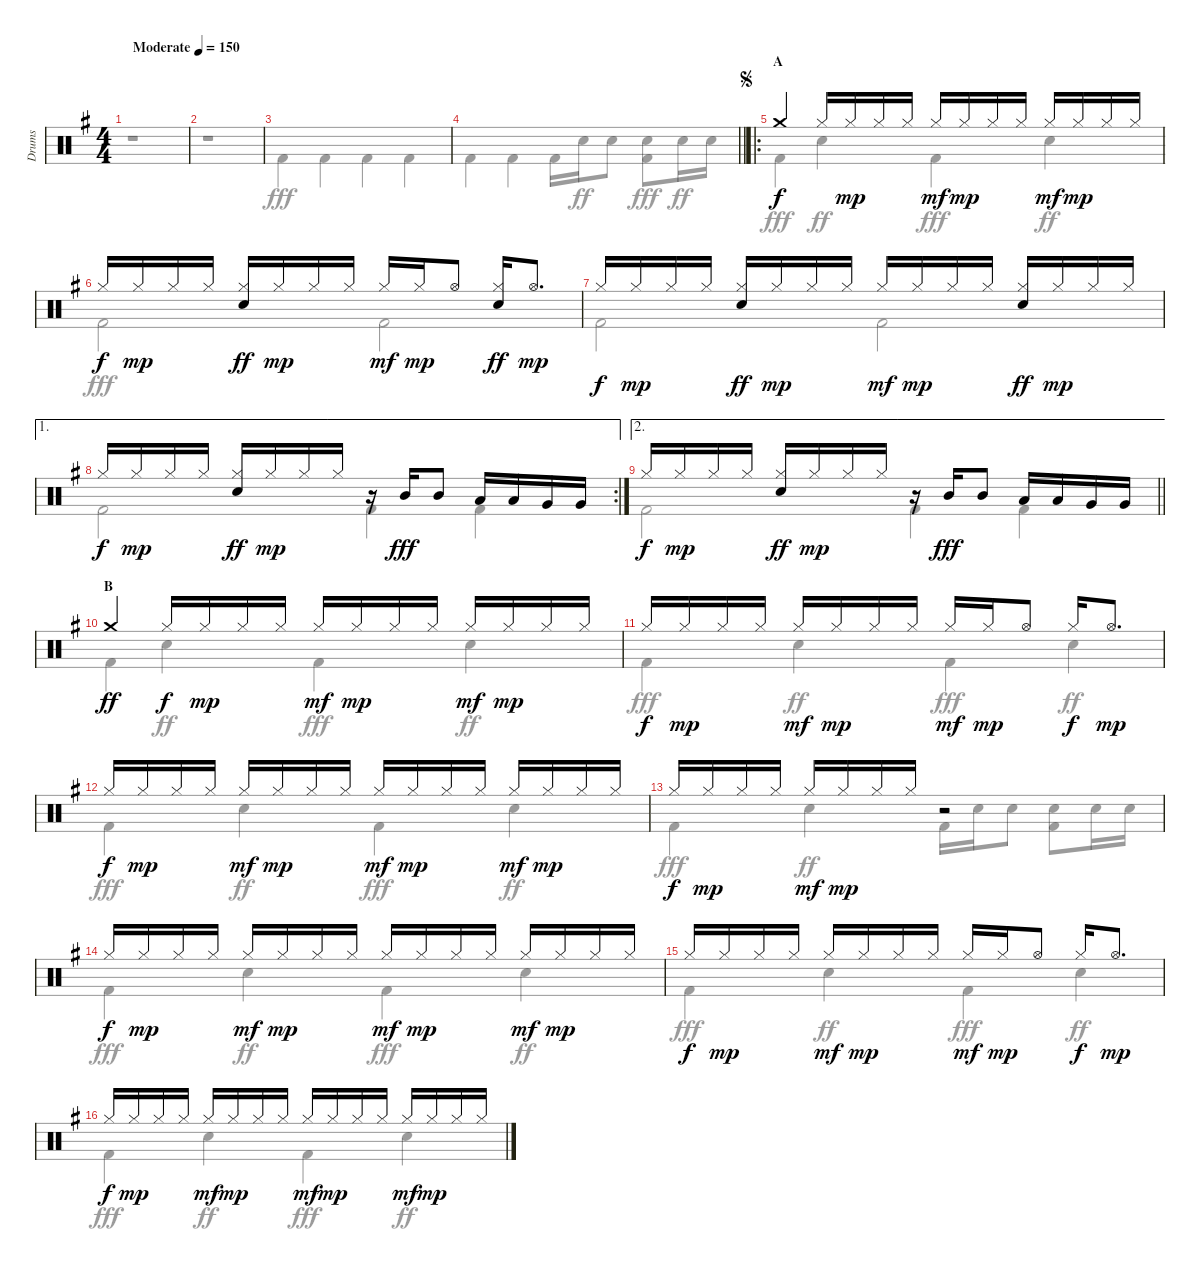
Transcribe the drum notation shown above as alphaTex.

\track ("Drums" "Drums") {instrument percussion}
\staff {score}
\articulation defaults
\voice
\ts (4 4)
\tempo (150 "Moderate")
\clef neutral
\ks eminor
|
|
|
\barLineRight lightlight
|
\ro
\section ("" "A")
\jump segno "Crash medium (hit)".4 "Hi-Hat (closed)".16{dy f} "Hi-Hat (closed)".16{dy mp} "Hi-Hat (closed)".16 "Hi-Hat (closed)".16 "Hi-Hat (closed)".16{dy mf} "Hi-Hat (closed)".16{dy mp} "Hi-Hat (closed)".16 "Hi-Hat (closed)".16 "Hi-Hat (closed)".16{dy mf} "Hi-Hat (closed)".16{dy mp} "Hi-Hat (closed)".16 "Hi-Hat (closed)".16
|
"Hi-Hat (closed)".16{dy f} "Hi-Hat (closed)".16{dy mp} "Hi-Hat (closed)".16 "Hi-Hat (closed)".16 ("Hi-Hat (closed)" "Electric Snare (hit)").16{dy ff} "Hi-Hat (closed)".16{dy mp} "Hi-Hat (closed)".16 "Hi-Hat (closed)".16 "Hi-Hat (closed)".16{dy mf} "Hi-Hat (closed)".16{dy mp} "Hi-Hat (open)".8 ("Hi-Hat (closed)" "Electric Snare (hit)").16{dy ff} "Hi-Hat (open)".8{d dy mp} |
"Hi-Hat (closed)".16{dy f} "Hi-Hat (closed)".16{dy mp} "Hi-Hat (closed)".16 "Hi-Hat (closed)".16 ("Hi-Hat (closed)" "Electric Snare (hit)").16{dy ff} "Hi-Hat (closed)".16{dy mp} "Hi-Hat (closed)".16 "Hi-Hat (closed)".16 "Hi-Hat (closed)".16{dy mf} "Hi-Hat (closed)".16{dy mp} "Hi-Hat (closed)".16 "Hi-Hat (closed)".16 ("Hi-Hat (closed)" "Electric Snare (hit)").16{dy ff} "Hi-Hat (closed)".16{dy mp} "Hi-Hat (closed)".16 "Hi-Hat (closed)".16 |
\ae 1
\rc 2 "Hi-Hat (closed)".16{dy f} "Hi-Hat (closed)".16{dy mp} "Hi-Hat (closed)".16 "Hi-Hat (closed)".16
("Hi-Hat (closed)" "Electric Snare (hit)").16{dy ff} "Hi-Hat (closed)".16{dy mp} "Hi-Hat (closed)".16 "Hi-Hat (closed)".16 r.16 "Mid Tom (hit)".16{dy fff} "Mid Tom (hit)".8 "Low Tom (hit)".16 "Low Tom (hit)".16 "Very Low Tom (hit)".16 "Very Low Tom (hit)".16 |
\ae 2
\barLineRight lightlight "Hi-Hat (closed)".16{dy f} "Hi-Hat (closed)".16{dy mp} "Hi-Hat (closed)".16 "Hi-Hat (closed)".16
("Hi-Hat (closed)" "Electric Snare (hit)").16{dy ff} "Hi-Hat (closed)".16{dy mp} "Hi-Hat (closed)".16 "Hi-Hat (closed)".16 r.16 "Mid Tom (hit)".16{dy fff} "Mid Tom (hit)".8 "Low Tom (hit)".16 "Low Tom (hit)".16 "Very Low Tom (hit)".16 "Very Low Tom (hit)".16 |
\section ("" "B")
"Crash medium (hit)".4{dy ff} "Hi-Hat (closed)".16{dy f} "Hi-Hat (closed)".16{dy mp} "Hi-Hat (closed)".16 "Hi-Hat (closed)".16 "Hi-Hat (closed)".16{dy mf} "Hi-Hat (closed)".16{dy mp} "Hi-Hat (closed)".16 "Hi-Hat (closed)".16 "Hi-Hat (closed)".16{dy mf} "Hi-Hat (closed)".16{dy mp} "Hi-Hat (closed)".16 "Hi-Hat (closed)".16 |
"Hi-Hat (closed)".16{dy f} "Hi-Hat (closed)".16{dy mp} "Hi-Hat (closed)".16 "Hi-Hat (closed)".16 "Hi-Hat (closed)".16{dy mf} "Hi-Hat (closed)".16{dy mp} "Hi-Hat (closed)".16 "Hi-Hat (closed)".16 "Hi-Hat (closed)".16{dy mf} "Hi-Hat (closed)".16{dy mp} "Hi-Hat (open)".8 "Hi-Hat (closed)".16{dy f} "Hi-Hat (open)".8{d dy mp} |
"Hi-Hat (closed)".16{dy f} "Hi-Hat (closed)".16{dy mp} "Hi-Hat (closed)".16 "Hi-Hat (closed)".16 "Hi-Hat (closed)".16{dy mf} "Hi-Hat (closed)".16{dy mp} "Hi-Hat (closed)".16 "Hi-Hat (closed)".16 "Hi-Hat (closed)".16{dy mf} "Hi-Hat (closed)".16{dy mp} "Hi-Hat (closed)".16 "Hi-Hat (closed)".16 "Hi-Hat (closed)".16{dy mf} "Hi-Hat (closed)".16{dy mp} "Hi-Hat (closed)".16 "Hi-Hat (closed)".16 |
"Hi-Hat (closed)".16{dy f} "Hi-Hat (closed)".16{dy mp} "Hi-Hat (closed)".16 "Hi-Hat (closed)".16 "Hi-Hat (closed)".16{dy mf} "Hi-Hat (closed)".16{dy mp} "Hi-Hat (closed)".16 "Hi-Hat (closed)".16 r.2 |
"Hi-Hat (closed)".16{dy f} "Hi-Hat (closed)".16{dy mp} "Hi-Hat (closed)".16 "Hi-Hat (closed)".16 "Hi-Hat (closed)".16{dy mf} "Hi-Hat (closed)".16{dy mp} "Hi-Hat (closed)".16 "Hi-Hat (closed)".16 "Hi-Hat (closed)".16{dy mf} "Hi-Hat (closed)".16{dy mp} "Hi-Hat (closed)".16 "Hi-Hat (closed)".16 "Hi-Hat (closed)".16{dy mf} "Hi-Hat (closed)".16{dy mp} "Hi-Hat (closed)".16 "Hi-Hat (closed)".16 |
"Hi-Hat (closed)".16{dy f} "Hi-Hat (closed)".16{dy mp} "Hi-Hat (closed)".16 "Hi-Hat (closed)".16 "Hi-Hat (closed)".16{dy mf} "Hi-Hat (closed)".16{dy mp} "Hi-Hat (closed)".16 "Hi-Hat (closed)".16 "Hi-Hat (closed)".16{dy mf} "Hi-Hat (closed)".16{dy mp} "Hi-Hat (open)".8 "Hi-Hat (closed)".16{dy f} "Hi-Hat (open)".8{d dy mp} |
"Hi-Hat (closed)".16{dy f} "Hi-Hat (closed)".16{dy mp} "Hi-Hat (closed)".16 "Hi-Hat (closed)".16 "Hi-Hat (closed)".16{dy mf} "Hi-Hat (closed)".16{dy mp} "Hi-Hat (closed)".16 "Hi-Hat (closed)".16 "Hi-Hat (closed)".16{dy mf} "Hi-Hat (closed)".16{dy mp} "Hi-Hat (closed)".16 "Hi-Hat (closed)".16 "Hi-Hat (closed)".16{dy mf} "Hi-Hat (closed)".16{dy mp} "Hi-Hat (closed)".16 "Hi-Hat (closed)".16
\voice
\clef neutral
\ottava regular
\simile none
\ks eminor
r.1{dy fff} |
r.1 |
"Kick (hit) 2".4 "Kick (hit) 2".4 "Kick (hit) 2".4 "Kick (hit) 2".4 |
\barLineRight lightlight "Kick (hit) 2".4 "Kick (hit) 2".4 "Kick (hit) 2".16 "Electric Snare (hit)".16{dy ff} "Electric Snare (hit)".8
("Electric Snare (hit)" "Kick (hit) 2").8{dy fff} "Electric Snare (hit)".16{dy ff} "Electric Snare (hit)".16 |
"Kick (hit) 2".4{dy fff} "Electric Snare (hit)".4{dy ff} "Kick (hit) 2".4{dy fff} "Electric Snare (hit)".4{dy ff} |
"Kick (hit) 2".2{dy fff} "Kick (hit) 2".2 |
"Kick (hit) 2".2 "Kick (hit) 2".2 |
"Kick (hit) 2".2 "Kick (hit) 2".4 "Kick (hit) 2".4 |
\barLineRight lightlight "Kick (hit) 2".2 "Kick (hit) 2".4 "Kick (hit) 2".4
|
"Kick (hit) 2".4 "Electric Snare (hit)".4{dy ff} "Kick (hit) 2".4{dy fff} "Electric Snare (hit)".4{dy ff} |
"Kick (hit) 2".4{dy fff} "Electric Snare (hit)".4{dy ff} "Kick (hit) 2".4{dy fff} "Electric Snare (hit)".4{dy ff} |
"Kick (hit) 2".4{dy fff} "Electric Snare (hit)".4{dy ff} "Kick (hit) 2".4{dy fff} "Electric Snare (hit)".4{dy ff} |
"Kick (hit) 2".4{dy fff} "Electric Snare (hit)".4{dy ff} "Kick (hit) 2".16 "Electric Snare (hit)".16 "Electric Snare (hit)".8 ("Electric Snare (hit)" "Kick (hit) 2").8 "Electric Snare (hit)".16 "Electric Snare (hit)".16 |
"Kick (hit) 2".4{dy fff} "Electric Snare (hit)".4{dy ff} "Kick (hit) 2".4{dy fff} "Electric Snare (hit)".4{dy ff} |
"Kick (hit) 2".4{dy fff} "Electric Snare (hit)".4{dy ff} "Kick (hit) 2".4{dy fff} "Electric Snare (hit)".4{dy ff} |
"Kick (hit) 2".4{dy fff} "Electric Snare (hit)".4{dy ff} "Kick (hit) 2".4{dy fff} "Electric Snare (hit)".4{dy ff}
